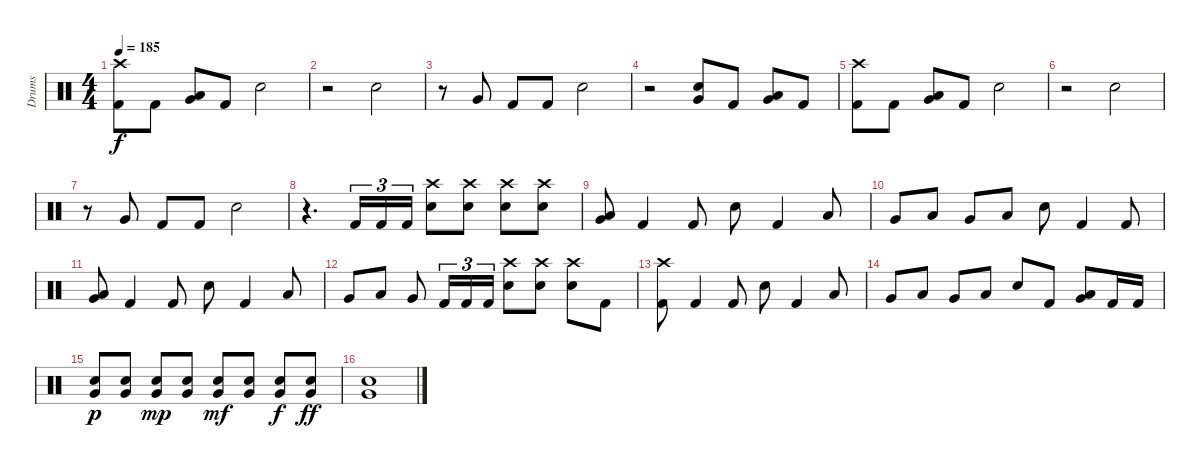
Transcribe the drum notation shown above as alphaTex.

\track ("Drums" "Drums") {instrument percussion}
\staff {score}
\articulation defaults
\ts (4 4)
\tempo 185
\clef neutral
\ks c
("Crash high (hit)" "Kick (hit) 2").8{dy f} "Kick (hit) 2".8 ("Very Low Tom (hit)" "Low Tom (hit)").8 "Kick (hit) 2".8 "Electric Snare (hit)".2 |
r.2 "Electric Snare (hit)".2 |
r.8 "Very Low Tom (hit)".8 "Kick (hit) 2".8 "Kick (hit) 2".8 "Electric Snare (hit)".2 |
r.2 ("Very Low Tom (hit)" "Electric Snare (hit)").8 "Kick (hit) 2".8 ("Very Low Tom (hit)" "Low Floor Tom (hit)").8 "Kick (hit) 2".8 |
("Crash high (hit)" "Kick (hit) 2").8 "Kick (hit) 2".8 ("Very Low Tom (hit)" "Low Tom (hit)").8 "Kick (hit) 2".8 "Electric Snare (hit)".2 |
r.2 "Electric Snare (hit)".2 |
r.8 "Very Low Tom (hit)".8 "Kick (hit) 2".8 "Kick (hit) 2".8 "Electric Snare (hit)".2 |
r.4{d} "Kick (hit) 2".16{tu (3 2)} "Kick (hit) 2".16{tu (3 2)} "Kick (hit) 2".16{tu (3 2)} ("Crash high (hit)" "Electric Snare (hit)").8 ("Crash high (hit)" "Electric Snare (hit)").8 ("Crash high (hit)" "Electric Snare (hit)").8 ("Crash high (hit)" "Electric Snare (hit)").8 |
("Very Low Tom (hit)" "Low Floor Tom (hit)").8 "Kick (hit) 2".4 "Kick (hit) 2".8 "Electric Snare (hit)".8 "Kick (hit) 2".4 "Low Tom (hit)".8 |
"Very Low Tom (hit)".8 "Low Tom (hit)".8 "Very Low Tom (hit)".8 "Low Floor Tom (hit)".8 "Electric Snare (hit)".8 "Kick (hit) 2".4 "Kick (hit) 2".8 |
("Very Low Tom (hit)" "Low Floor Tom (hit)").8 "Kick (hit) 2".4 "Kick (hit) 2".8 "Electric Snare (hit)".8 "Kick (hit) 2".4 "Low Tom (hit)".8 |
"Very Low Tom (hit)".8 "Low Tom (hit)".8 "Very Low Tom (hit)".8 "Kick (hit) 2".16{tu (3 2)} "Kick (hit) 2".16{tu (3 2)} "Kick (hit) 2".16{tu (3 2)} ("Crash high (hit)" "Electric Snare (hit)").8 ("Crash high (hit)" "Electric Snare (hit)").8 ("Crash high (hit)" "Electric Snare (hit)").8 "Kick (hit) 2".8 |
("Crash high (hit)" "Kick (hit) 2").8 "Kick (hit) 2".4 "Kick (hit) 2".8 "Electric Snare (hit)".8 "Kick (hit) 2".4 "Low Tom (hit)".8 |
"Very Low Tom (hit)".8 "Low Tom (hit)".8 "Very Low Tom (hit)".8 "Low Floor Tom (hit)".8 "Electric Snare (hit)".8 "Kick (hit) 2".8 ("Very Low Tom (hit)" "Low Floor Tom (hit)").8 "Kick (hit) 2".16 "Kick (hit) 2".16 |
("Very Low Tom (hit)" "Electric Snare (hit)").8{dy p} ("Very Low Tom (hit)" "Electric Snare (hit)").8 ("Very Low Tom (hit)" "Electric Snare (hit)").8{dy mp} ("Very Low Tom (hit)" "Electric Snare (hit)").8 ("Very Low Tom (hit)" "Electric Snare (hit)").8{dy mf} ("Very Low Tom (hit)" "Electric Snare (hit)").8 ("Very Low Tom (hit)" "Electric Snare (hit)").8{dy f} ("Very Low Tom (hit)" "Electric Snare (hit)").8{dy ff} |
("Very Low Tom (hit)" "Electric Snare (hit)").1
